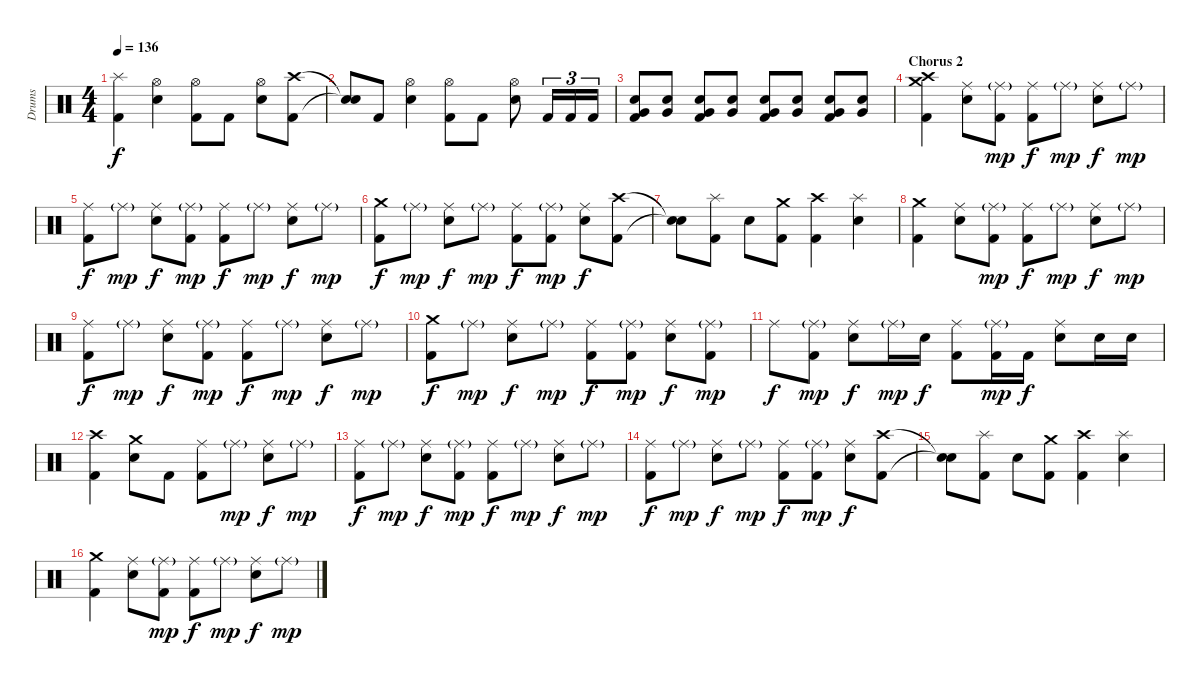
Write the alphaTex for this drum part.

\track ("Drums" "Drums") {instrument percussion}
\staff {score}
\articulation defaults
\ts (4 4)
\tempo 136
\clef neutral
\ks c
("Splash (hit)" "Kick (hit) 2").4{dy f} ("Hi-Hat (open)" "Snare (hit) 2").4 ("Hi-Hat (open)" "Kick (hit) 2").8 "Kick (hit) 2".8 ("Hi-Hat (open)" "Snare (hit) 2").8 ("Crash high (hit)" "Kick (hit) 2").8 |
("Snare (hit)"{t} "Snare (hit)"{t}).8 "Kick (hit) 2".8 ("Hi-Hat (open)" "Snare (hit) 2").4 ("Hi-Hat (open)" "Kick (hit) 2").8 "Kick (hit) 2".8 ("Hi-Hat (open)" "Snare (hit) 2").8 "Kick (hit) 2".16{tu (3 2)} "Kick (hit) 2".16{tu (3 2)} "Kick (hit) 2".16{tu (3 2)} |
("Very Low Tom (hit)" "Snare (hit) 2" "Kick (hit) 2").8 ("Very Low Tom (hit)" "Snare (hit) 2").8 ("Very Low Tom (hit)" "Snare (hit) 2" "Kick (hit) 2").8 ("Very Low Tom (hit)" "Snare (hit) 2").8 ("Very Low Tom (hit)" "Snare (hit) 2" "Kick (hit) 2").8 ("Very Low Tom (hit)" "Snare (hit) 2").8 ("Very Low Tom (hit)" "Snare (hit) 2" "Kick (hit) 2").8 ("Very Low Tom (hit)" "Snare (hit) 2").8 |
\section ("" "Chorus 2")
("Crash medium (hit)" "Crash high (hit)" "Kick (hit) 2").4 ("Ride (middle)" "Snare (hit) 2").8 ("Ride (middle)"{g} "Kick (hit) 2").8{dy mp} ("Ride (middle)" "Kick (hit) 2").8{dy f} "Ride (middle)"{g}.8{dy mp} ("Ride (middle)" "Snare (hit) 2").8{dy f} "Ride (middle)"{g}.8{dy mp} |
("Ride (middle)" "Kick (hit) 2").8{dy f} "Ride (middle)"{g}.8{dy mp} ("Ride (middle)" "Snare (hit) 2").8{dy f} ("Ride (middle)"{g} "Kick (hit) 2").8{dy mp} ("Ride (middle)" "Kick (hit) 2").8{dy f} "Ride (middle)"{g}.8{dy mp} ("Ride (middle)" "Snare (hit) 2").8{dy f} "Ride (middle)"{g}.8{dy mp} |
("Crash medium (hit)" "Kick (hit) 2").8{dy f} "Ride (middle)"{g}.8{dy mp} ("Ride (middle)" "Snare (hit) 2").8{dy f} "Ride (middle)"{g}.8{dy mp} ("Ride (middle)" "Kick (hit) 2").8{dy f} ("Ride (middle)"{g} "Kick (hit) 2").8{dy mp} ("Ride (middle)" "Snare (hit) 2").8{dy f} ("Crash high (hit)" "Kick (hit) 2").8 |
("Snare (hit)"{t} "Snare (hit)"{t}).8 ("Splash (hit)" "Kick (hit) 2").8 "Snare (hit) 2".8 ("Crash medium (hit)" "Kick (hit) 2").8 ("Crash high (hit)" "Kick (hit) 2").4 ("Splash (hit)" "Snare (hit) 2").4 |
("Crash medium (hit)" "Kick (hit) 2").4 ("Ride (middle)" "Snare (hit) 2").8 ("Ride (middle)"{g} "Kick (hit) 2").8{dy mp} ("Ride (middle)" "Kick (hit) 2").8{dy f} "Ride (middle)"{g}.8{dy mp} ("Ride (middle)" "Snare (hit) 2").8{dy f} "Ride (middle)"{g}.8{dy mp} |
("Ride (middle)" "Kick (hit) 2").8{dy f} "Ride (middle)"{g}.8{dy mp} ("Ride (middle)" "Snare (hit) 2").8{dy f} ("Ride (middle)"{g} "Kick (hit) 2").8{dy mp} ("Ride (middle)" "Kick (hit) 2").8{dy f} "Ride (middle)"{g}.8{dy mp} ("Ride (middle)" "Snare (hit) 2").8{dy f} "Ride (middle)"{g}.8{dy mp} |
("Crash medium (hit)" "Kick (hit) 2").8{dy f} "Ride (middle)"{g}.8{dy mp} ("Ride (middle)" "Snare (hit) 2").8{dy f} "Ride (middle)"{g}.8{dy mp} ("Ride (middle)" "Kick (hit) 2").8{dy f} ("Ride (middle)"{g} "Kick (hit) 2").8{dy mp} ("Ride (middle)" "Snare (hit) 2").8{dy f} ("Ride (middle)"{g} "Kick (hit) 2").8{dy mp} |
"Ride (middle)".8{dy f} ("Ride (middle)"{g} "Kick (hit) 2").8{dy mp} ("Ride (middle)" "Snare (hit) 2").8{dy f} "Ride (middle)"{g}.16{dy mp} "Snare (hit) 2".16{dy f} ("Ride (middle)" "Kick (hit) 2").8 ("Ride (middle)"{g} "Kick (hit) 2").16{dy mp} "Kick (hit) 2".16{dy f} ("Ride (middle)" "Snare (hit) 2").8 "Snare (hit) 2".16 "Snare (hit) 2".16 |
("Crash high (hit)" "Kick (hit) 2").4 ("Crash medium (hit)" "Snare (hit) 2").8 "Kick (hit) 2".8 ("Ride (middle)" "Kick (hit) 2").8 "Ride (middle)"{g}.8{dy mp} ("Ride (middle)" "Snare (hit) 2").8{dy f} "Ride (middle)"{g}.8{dy mp} |
("Ride (middle)" "Kick (hit) 2").8{dy f} "Ride (middle)"{g}.8{dy mp} ("Ride (middle)" "Snare (hit) 2").8{dy f} ("Ride (middle)"{g} "Kick (hit) 2").8{dy mp} ("Ride (middle)" "Kick (hit) 2").8{dy f} "Ride (middle)"{g}.8{dy mp} ("Ride (middle)" "Snare (hit) 2").8{dy f} "Ride (middle)"{g}.8{dy mp} |
("Ride (middle)" "Kick (hit) 2").8{dy f} "Ride (middle)"{g}.8{dy mp} ("Ride (middle)" "Snare (hit) 2").8{dy f} "Ride (middle)"{g}.8{dy mp} ("Ride (middle)" "Kick (hit) 2").8{dy f} ("Ride (middle)"{g} "Kick (hit) 2").8{dy mp} ("Ride (middle)" "Snare (hit) 2").8{dy f} ("Crash high (hit)" "Kick (hit) 2").8 |
("Snare (hit)"{t} "Snare (hit)"{t}).8 ("Splash (hit)" "Kick (hit) 2").8 "Snare (hit) 2".8 ("Crash medium (hit)" "Kick (hit) 2").8 ("Crash high (hit)" "Kick (hit) 2").4 ("Splash (hit)" "Snare (hit) 2").4 |
("Crash medium (hit)" "Kick (hit) 2").4 ("Ride (middle)" "Snare (hit) 2").8 ("Ride (middle)"{g} "Kick (hit) 2").8{dy mp} ("Ride (middle)" "Kick (hit) 2").8{dy f} "Ride (middle)"{g}.8{dy mp} ("Ride (middle)" "Snare (hit) 2").8{dy f} "Ride (middle)"{g}.8{dy mp}
